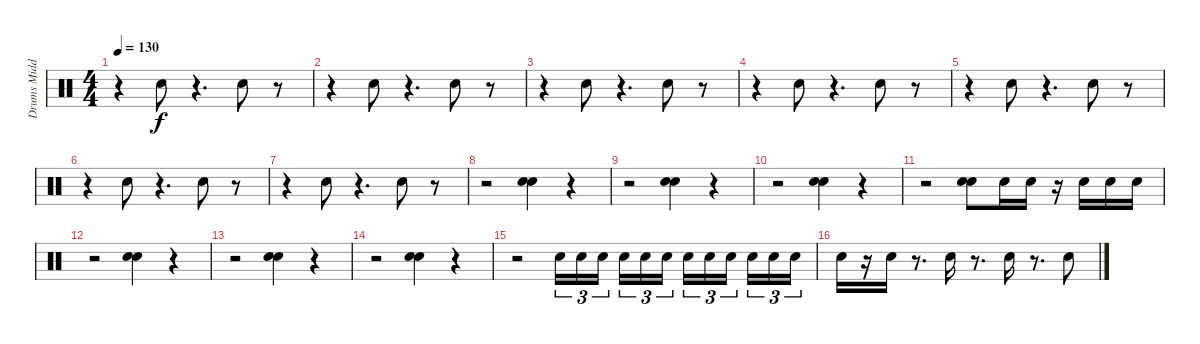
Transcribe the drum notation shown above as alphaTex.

\track ("Drums Middle" "Drums Midd") {instrument percussion}
\staff {score}
\articulation defaults
\ts (4 4)
\tempo 130
\clef neutral
\ks c
r.4{dy f} "Electric Snare (hit)".8 r.4{d} "Electric Snare (hit)".8 r.8 |
r.4 "Electric Snare (hit)".8 r.4{d} "Electric Snare (hit)".8 r.8 |
r.4 "Electric Snare (hit)".8 r.4{d} "Electric Snare (hit)".8 r.8 |
r.4 "Electric Snare (hit)".8 r.4{d} "Electric Snare (hit)".8 r.8 |
r.4 "Electric Snare (hit)".8 r.4{d} "Electric Snare (hit)".8 r.8 |
r.4 "Electric Snare (hit)".8 r.4{d} "Electric Snare (hit)".8 r.8 |
r.4 "Electric Snare (hit)".8 r.4{d} "Electric Snare (hit)".8 r.8 |
r.2{volume 8} ("Snare (hit) 2" "Electric Snare (hit)").4 r.4 |
r.2 ("Snare (hit) 2" "Electric Snare (hit)").4 r.4 |
r.2 ("Snare (hit) 2" "Electric Snare (hit)").4 r.4 |
r.2 ("Snare (hit) 2" "Electric Snare (hit)").8 "Electric Snare (hit)".16 "Electric Snare (hit)".16 r.16 "Electric Snare (hit)".16 "Electric Snare (hit)".16 "Electric Snare (hit)".16 |
r.2 ("Snare (hit) 2" "Electric Snare (hit)").4 r.4 |
r.2 ("Snare (hit) 2" "Electric Snare (hit)").4 r.4 |
r.2 ("Snare (hit) 2" "Electric Snare (hit)").4 r.4 |
r.2 "Electric Snare (hit)".16{tu (3 2) volume 14} "Electric Snare (hit)".16{tu (3 2)} "Electric Snare (hit)".16{tu (3 2) beam splitsecondary} "Electric Snare (hit)".16{tu (3 2)} "Electric Snare (hit)".16{tu (3 2)} "Electric Snare (hit)".16{tu (3 2)} "Snare (hit) 2".16{tu (3 2)} "Snare (hit) 2".16{tu (3 2)} "Snare (hit) 2".16{tu (3 2) beam splitsecondary} "Snare (hit) 2".16{tu (3 2)} "Snare (hit) 2".16{tu (3 2)} "Snare (hit) 2".16{tu (3 2)} |
"Electric Snare (hit)".16 r.16 "Electric Snare (hit)".16 r.8{d} "Electric Snare (hit)".16 r.8{d} "Electric Snare (hit)".16 r.8{d} "Electric Snare (hit)".8
